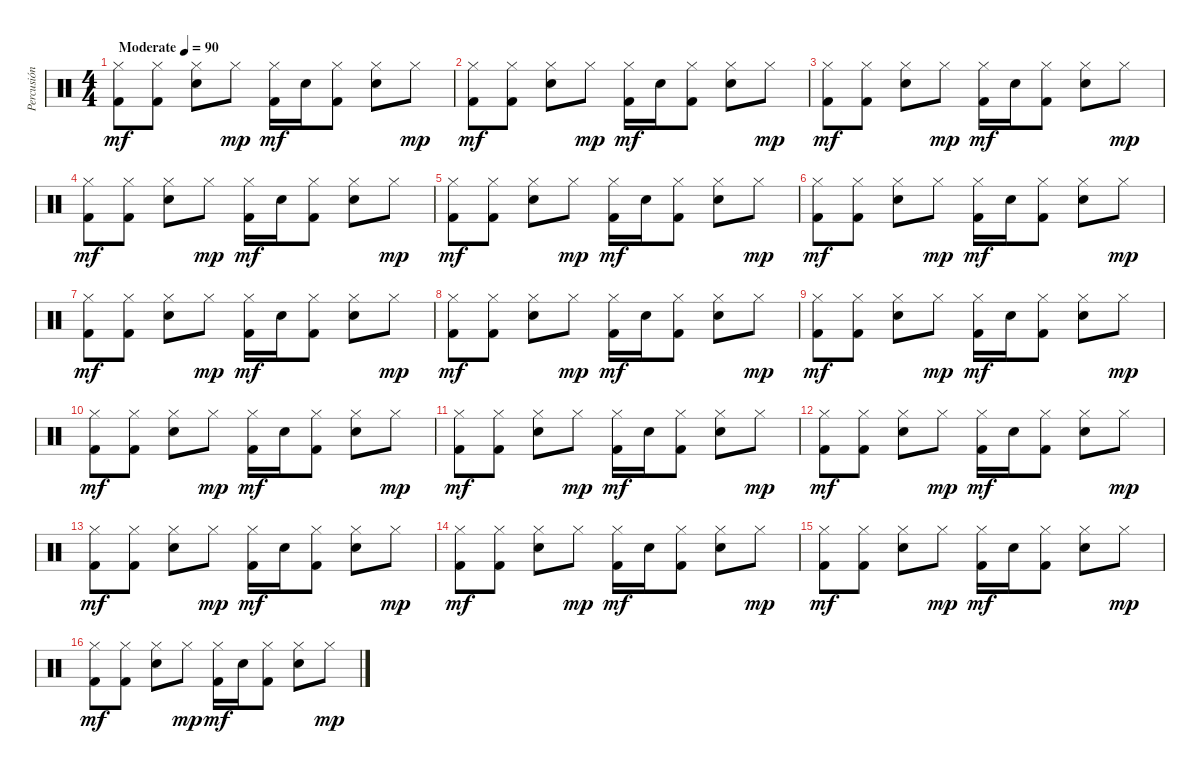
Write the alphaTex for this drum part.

\track ("Percusión" "Percusión") {instrument percussion}
\staff {score}
\articulation defaults
\ts (4 4)
\tempo (90 "Moderate")
\clef neutral
\ks c
("Hi-Hat (closed)" "Kick (hit) 2").8{dy mf} ("Hi-Hat (closed)" "Kick (hit) 2").8 ("Hi-Hat (closed)" "Electric Snare (hit)").8 "Hi-Hat (closed)".8{dy mp} ("Hi-Hat (closed)" "Kick (hit) 2").16{dy mf} "Electric Snare (hit)".16 ("Hi-Hat (closed)" "Kick (hit) 2").8 ("Hi-Hat (closed)" "Electric Snare (hit)").8 "Hi-Hat (closed)".8{dy mp} |
("Hi-Hat (closed)" "Kick (hit) 2").8{dy mf} ("Hi-Hat (closed)" "Kick (hit) 2").8 ("Hi-Hat (closed)" "Electric Snare (hit)").8 "Hi-Hat (closed)".8{dy mp} ("Hi-Hat (closed)" "Kick (hit) 2").16{dy mf} "Electric Snare (hit)".16 ("Hi-Hat (closed)" "Kick (hit) 2").8 ("Hi-Hat (closed)" "Electric Snare (hit)").8 "Hi-Hat (closed)".8{dy mp} |
("Hi-Hat (closed)" "Kick (hit) 2").8{dy mf} ("Hi-Hat (closed)" "Kick (hit) 2").8 ("Hi-Hat (closed)" "Electric Snare (hit)").8 "Hi-Hat (closed)".8{dy mp} ("Hi-Hat (closed)" "Kick (hit) 2").16{dy mf} "Electric Snare (hit)".16 ("Hi-Hat (closed)" "Kick (hit) 2").8 ("Hi-Hat (closed)" "Electric Snare (hit)").8 "Hi-Hat (closed)".8{dy mp} |
("Hi-Hat (closed)" "Kick (hit) 2").8{dy mf} ("Hi-Hat (closed)" "Kick (hit) 2").8 ("Hi-Hat (closed)" "Electric Snare (hit)").8 "Hi-Hat (closed)".8{dy mp} ("Hi-Hat (closed)" "Kick (hit) 2").16{dy mf} "Electric Snare (hit)".16 ("Hi-Hat (closed)" "Kick (hit) 2").8 ("Hi-Hat (closed)" "Electric Snare (hit)").8 "Hi-Hat (closed)".8{dy mp} |
("Hi-Hat (closed)" "Kick (hit) 2").8{dy mf} ("Hi-Hat (closed)" "Kick (hit) 2").8 ("Hi-Hat (closed)" "Electric Snare (hit)").8 "Hi-Hat (closed)".8{dy mp} ("Hi-Hat (closed)" "Kick (hit) 2").16{dy mf} "Electric Snare (hit)".16 ("Hi-Hat (closed)" "Kick (hit) 2").8 ("Hi-Hat (closed)" "Electric Snare (hit)").8 "Hi-Hat (closed)".8{dy mp} |
("Hi-Hat (closed)" "Kick (hit) 2").8{dy mf} ("Hi-Hat (closed)" "Kick (hit) 2").8 ("Hi-Hat (closed)" "Electric Snare (hit)").8 "Hi-Hat (closed)".8{dy mp} ("Hi-Hat (closed)" "Kick (hit) 2").16{dy mf} "Electric Snare (hit)".16 ("Hi-Hat (closed)" "Kick (hit) 2").8 ("Hi-Hat (closed)" "Electric Snare (hit)").8 "Hi-Hat (closed)".8{dy mp} |
("Hi-Hat (closed)" "Kick (hit) 2").8{dy mf} ("Hi-Hat (closed)" "Kick (hit) 2").8 ("Hi-Hat (closed)" "Electric Snare (hit)").8 "Hi-Hat (closed)".8{dy mp} ("Hi-Hat (closed)" "Kick (hit) 2").16{dy mf} "Electric Snare (hit)".16 ("Hi-Hat (closed)" "Kick (hit) 2").8 ("Hi-Hat (closed)" "Electric Snare (hit)").8 "Hi-Hat (closed)".8{dy mp} |
("Hi-Hat (closed)" "Kick (hit) 2").8{dy mf} ("Hi-Hat (closed)" "Kick (hit) 2").8 ("Hi-Hat (closed)" "Electric Snare (hit)").8 "Hi-Hat (closed)".8{dy mp} ("Hi-Hat (closed)" "Kick (hit) 2").16{dy mf} "Electric Snare (hit)".16 ("Hi-Hat (closed)" "Kick (hit) 2").8 ("Hi-Hat (closed)" "Electric Snare (hit)").8 "Hi-Hat (closed)".8{dy mp} |
("Hi-Hat (closed)" "Kick (hit) 2").8{dy mf} ("Hi-Hat (closed)" "Kick (hit) 2").8 ("Hi-Hat (closed)" "Electric Snare (hit)").8 "Hi-Hat (closed)".8{dy mp} ("Hi-Hat (closed)" "Kick (hit) 2").16{dy mf} "Electric Snare (hit)".16 ("Hi-Hat (closed)" "Kick (hit) 2").8 ("Hi-Hat (closed)" "Electric Snare (hit)").8 "Hi-Hat (closed)".8{dy mp} |
("Hi-Hat (closed)" "Kick (hit) 2").8{dy mf} ("Hi-Hat (closed)" "Kick (hit) 2").8 ("Hi-Hat (closed)" "Electric Snare (hit)").8 "Hi-Hat (closed)".8{dy mp} ("Hi-Hat (closed)" "Kick (hit) 2").16{dy mf} "Electric Snare (hit)".16 ("Hi-Hat (closed)" "Kick (hit) 2").8 ("Hi-Hat (closed)" "Electric Snare (hit)").8 "Hi-Hat (closed)".8{dy mp} |
("Hi-Hat (closed)" "Kick (hit) 2").8{dy mf} ("Hi-Hat (closed)" "Kick (hit) 2").8 ("Hi-Hat (closed)" "Electric Snare (hit)").8 "Hi-Hat (closed)".8{dy mp} ("Hi-Hat (closed)" "Kick (hit) 2").16{dy mf} "Electric Snare (hit)".16 ("Hi-Hat (closed)" "Kick (hit) 2").8 ("Hi-Hat (closed)" "Electric Snare (hit)").8 "Hi-Hat (closed)".8{dy mp} |
("Hi-Hat (closed)" "Kick (hit) 2").8{dy mf} ("Hi-Hat (closed)" "Kick (hit) 2").8 ("Hi-Hat (closed)" "Electric Snare (hit)").8 "Hi-Hat (closed)".8{dy mp} ("Hi-Hat (closed)" "Kick (hit) 2").16{dy mf} "Electric Snare (hit)".16 ("Hi-Hat (closed)" "Kick (hit) 2").8 ("Hi-Hat (closed)" "Electric Snare (hit)").8 "Hi-Hat (closed)".8{dy mp} |
("Hi-Hat (closed)" "Kick (hit) 2").8{dy mf} ("Hi-Hat (closed)" "Kick (hit) 2").8 ("Hi-Hat (closed)" "Electric Snare (hit)").8 "Hi-Hat (closed)".8{dy mp} ("Hi-Hat (closed)" "Kick (hit) 2").16{dy mf} "Electric Snare (hit)".16 ("Hi-Hat (closed)" "Kick (hit) 2").8 ("Hi-Hat (closed)" "Electric Snare (hit)").8 "Hi-Hat (closed)".8{dy mp} |
("Hi-Hat (closed)" "Kick (hit) 2").8{dy mf} ("Hi-Hat (closed)" "Kick (hit) 2").8 ("Hi-Hat (closed)" "Electric Snare (hit)").8 "Hi-Hat (closed)".8{dy mp} ("Hi-Hat (closed)" "Kick (hit) 2").16{dy mf} "Electric Snare (hit)".16 ("Hi-Hat (closed)" "Kick (hit) 2").8 ("Hi-Hat (closed)" "Electric Snare (hit)").8 "Hi-Hat (closed)".8{dy mp} |
("Hi-Hat (closed)" "Kick (hit) 2").8{dy mf} ("Hi-Hat (closed)" "Kick (hit) 2").8 ("Hi-Hat (closed)" "Electric Snare (hit)").8 "Hi-Hat (closed)".8{dy mp} ("Hi-Hat (closed)" "Kick (hit) 2").16{dy mf} "Electric Snare (hit)".16 ("Hi-Hat (closed)" "Kick (hit) 2").8 ("Hi-Hat (closed)" "Electric Snare (hit)").8 "Hi-Hat (closed)".8{dy mp} |
("Hi-Hat (closed)" "Kick (hit) 2").8{dy mf} ("Hi-Hat (closed)" "Kick (hit) 2").8 ("Hi-Hat (closed)" "Electric Snare (hit)").8 "Hi-Hat (closed)".8{dy mp} ("Hi-Hat (closed)" "Kick (hit) 2").16{dy mf} "Electric Snare (hit)".16 ("Hi-Hat (closed)" "Kick (hit) 2").8 ("Hi-Hat (closed)" "Electric Snare (hit)").8 "Hi-Hat (closed)".8{dy mp}
